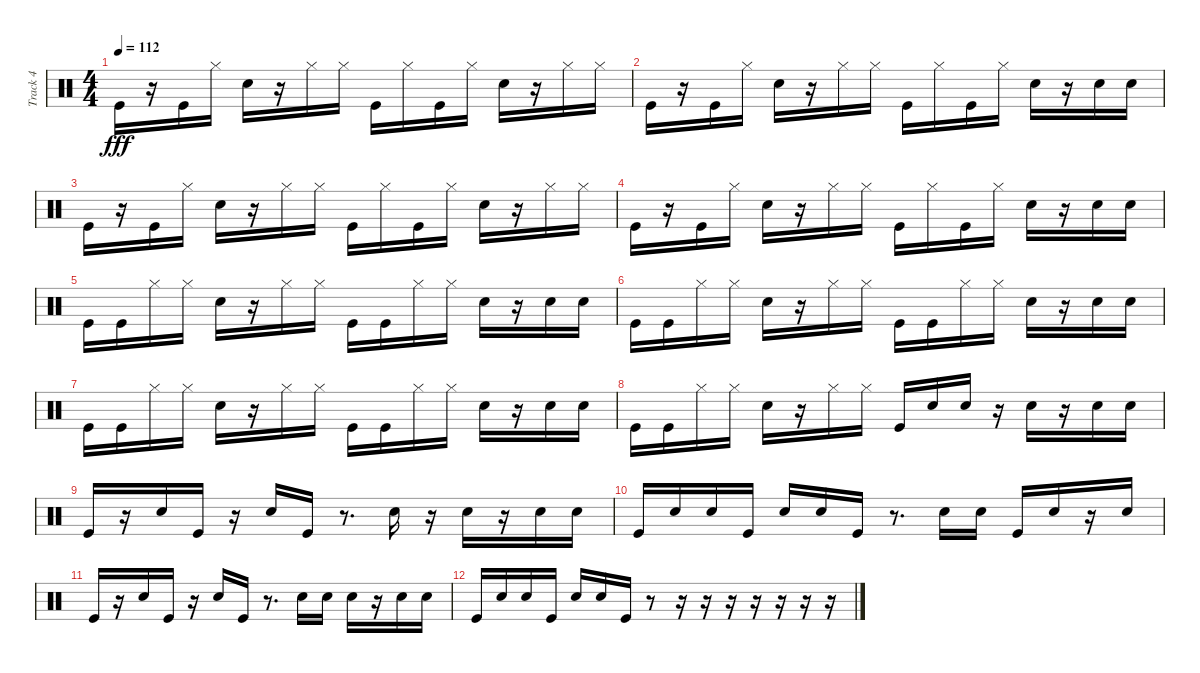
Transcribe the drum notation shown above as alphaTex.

\track ("Track 4" "Track 4") {instrument percussion}
\staff {score}
\articulation defaults
\ts (4 4)
\tempo 112
\clef neutral
\ks c "Kick (hit)".16{dy fff}
r.16 "Kick (hit)".16 "Hi-Hat (closed)".16 "Snare (hit) 2".16 r.16 "Hi-Hat (closed)".16 "Hi-Hat (closed)".16 "Kick (hit)".16 "Hi-Hat (closed)".16 "Kick (hit)".16 "Hi-Hat (closed)".16 "Snare (hit) 2".16 r.16 "Hi-Hat (closed)".16 "Hi-Hat (closed)".16 |
"Kick (hit)".16 r.16 "Kick (hit)".16 "Hi-Hat (closed)".16 "Snare (hit) 2".16 r.16 "Hi-Hat (closed)".16 "Hi-Hat (closed)".16 "Kick (hit)".16 "Hi-Hat (closed)".16 "Kick (hit)".16 "Hi-Hat (closed)".16 "Snare (hit) 2".16 r.16 "Snare (hit) 2".16 "Snare (hit) 2".16 |
"Kick (hit)".16 r.16 "Kick (hit)".16 "Hi-Hat (closed)".16 "Snare (hit) 2".16 r.16 "Hi-Hat (closed)".16 "Hi-Hat (closed)".16 "Kick (hit)".16 "Hi-Hat (closed)".16 "Kick (hit)".16 "Hi-Hat (closed)".16 "Snare (hit) 2".16 r.16 "Hi-Hat (closed)".16 "Hi-Hat (closed)".16 |
"Kick (hit)".16 r.16 "Kick (hit)".16 "Hi-Hat (closed)".16 "Snare (hit) 2".16 r.16 "Hi-Hat (closed)".16 "Hi-Hat (closed)".16 "Kick (hit)".16 "Hi-Hat (closed)".16 "Kick (hit)".16 "Hi-Hat (closed)".16 "Snare (hit) 2".16 r.16 "Snare (hit) 2".16 "Snare (hit) 2".16 |
"Kick (hit)".16 "Kick (hit)".16 "Hi-Hat (closed)".16 "Hi-Hat (closed)".16 "Snare (hit) 2".16 r.16 "Hi-Hat (closed)".16 "Hi-Hat (closed)".16 "Kick (hit)".16 "Kick (hit)".16 "Hi-Hat (closed)".16 "Hi-Hat (closed)".16 "Snare (hit) 2".16 r.16 "Snare (hit) 2".16 "Snare (hit) 2".16 |
"Kick (hit)".16 "Kick (hit)".16 "Hi-Hat (closed)".16 "Hi-Hat (closed)".16 "Snare (hit) 2".16 r.16 "Hi-Hat (closed)".16 "Hi-Hat (closed)".16 "Kick (hit)".16 "Kick (hit)".16 "Hi-Hat (closed)".16 "Hi-Hat (closed)".16 "Snare (hit) 2".16 r.16 "Snare (hit) 2".16 "Snare (hit) 2".16 |
"Kick (hit)".16 "Kick (hit)".16 "Hi-Hat (closed)".16 "Hi-Hat (closed)".16 "Snare (hit) 2".16 r.16 "Hi-Hat (closed)".16 "Hi-Hat (closed)".16 "Kick (hit)".16 "Kick (hit)".16 "Hi-Hat (closed)".16 "Hi-Hat (closed)".16 "Snare (hit) 2".16 r.16 "Snare (hit) 2".16 "Snare (hit) 2".16 |
"Kick (hit)".16 "Kick (hit)".16 "Hi-Hat (closed)".16 "Hi-Hat (closed)".16 "Snare (hit) 2".16 r.16 "Hi-Hat (closed)".16 "Hi-Hat (closed)".16 "Kick (hit)".16 "Snare (hit) 2".16 "Snare (hit) 2".16 r.16 "Snare (hit) 2".16 r.16 "Snare (hit) 2".16 "Snare (hit) 2".16 |
"Kick (hit)".16 r.16 "Snare (hit) 2".16 "Kick (hit)".16 r.16 "Snare (hit) 2".16 "Kick (hit)".16 r.8{d} "Snare (hit) 2".16 r.16 "Snare (hit) 2".16 r.16 "Snare (hit) 2".16 "Snare (hit) 2".16 |
"Kick (hit)".16 "Snare (hit) 2".16 "Snare (hit) 2".16 "Kick (hit)".16 "Snare (hit) 2".16 "Snare (hit) 2".16 "Kick (hit)".16 r.8{d} "Snare (hit) 2".16 "Snare (hit) 2".16 "Kick (hit)".16 "Snare (hit) 2".16 r.16 "Snare (hit) 2".16 |
"Kick (hit)".16 r.16 "Snare (hit) 2".16 "Kick (hit)".16 r.16 "Snare (hit) 2".16 "Kick (hit)".16 r.8{d} "Snare (hit) 2".16 "Snare (hit) 2".16 "Snare (hit) 2".16 r.16 "Snare (hit) 2".16 "Snare (hit) 2".16 |
"Kick (hit)".16 "Snare (hit) 2".16 "Snare (hit) 2".16 "Kick (hit)".16 "Snare (hit) 2".16 "Snare (hit) 2".16 "Kick (hit)".16 r.8 r.16 r.16 r.16 r.16 r.16 r.16 r.16
